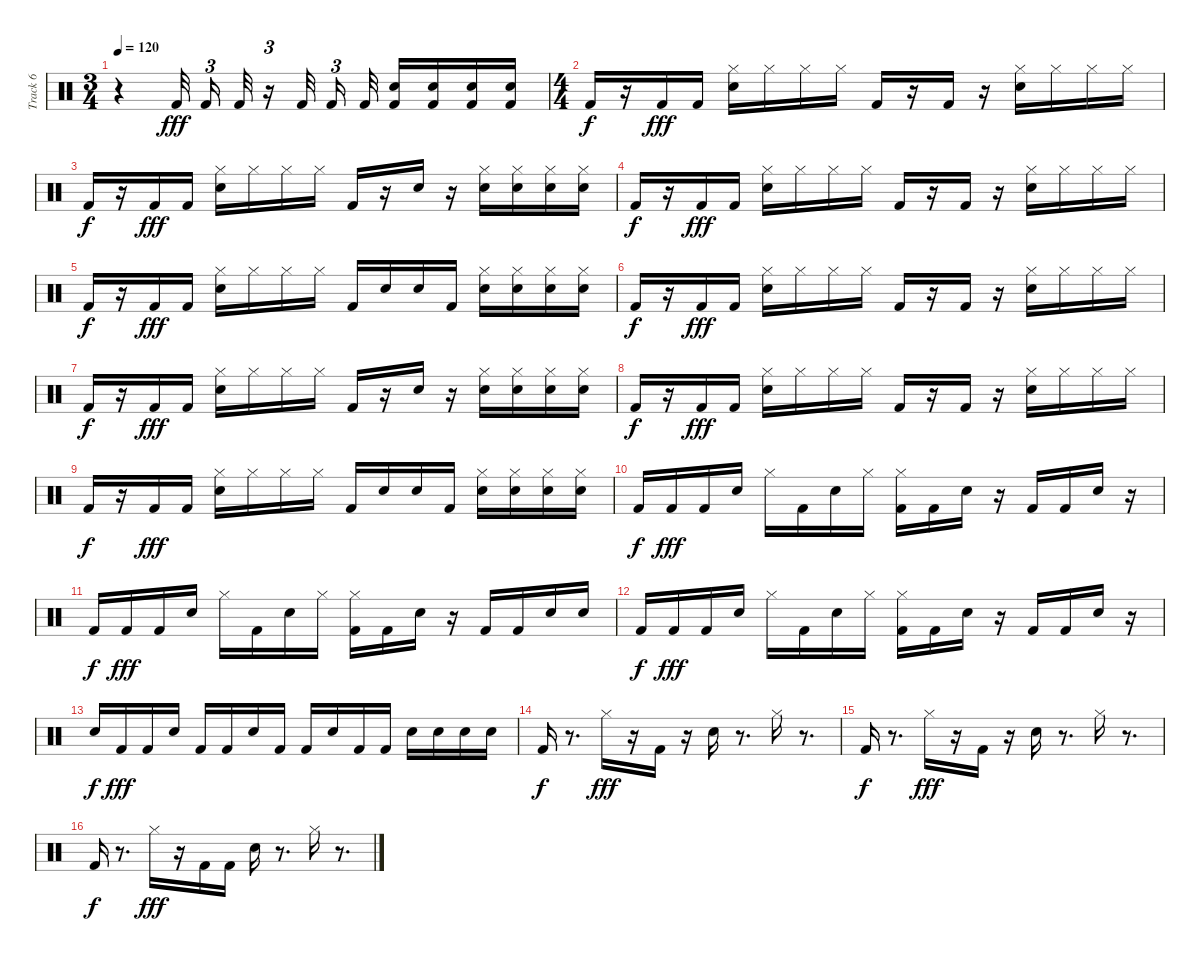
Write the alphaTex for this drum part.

\track ("Track 6" "Track 6") {instrument percussion}
\staff {score}
\articulation defaults
\ts (3 4)
\tempo 120
\clef neutral
\ks c
r.4{dy fff} "Kick (hit) 2".32{beam splitsecondary} "Kick (hit) 2".16{tu (3 2)} "Kick (hit) 2".32 r.16{tu (3 2)} "Kick (hit) 2".32{beam splitsecondary} "Kick (hit) 2".16{tu (3 2)} "Kick (hit) 2".32 ("Snare (hit) 2" "Kick (hit) 2").16 ("Snare (hit) 2" "Kick (hit) 2").16 ("Snare (hit) 2" "Kick (hit) 2").16 ("Snare (hit) 2" "Kick (hit) 2").16 |
\ts (4 4)
"Kick (hit) 2".16{dy f} r.16 "Kick (hit) 2".16{dy fff} "Kick (hit) 2".16 ("Snare (hit) 2" "Hi-Hat (closed)").16 "Hi-Hat (closed)".16 "Hi-Hat (closed)".16 "Hi-Hat (closed)".16 "Kick (hit) 2".16 r.16 "Kick (hit) 2".16 r.16 ("Snare (hit) 2" "Hi-Hat (closed)").16 "Hi-Hat (closed)".16 "Hi-Hat (closed)".16 "Hi-Hat (closed)".16 |
"Kick (hit) 2".16{dy f} r.16 "Kick (hit) 2".16{dy fff} "Kick (hit) 2".16 ("Snare (hit) 2" "Hi-Hat (closed)").16 "Hi-Hat (closed)".16 "Hi-Hat (closed)".16 "Hi-Hat (closed)".16 "Kick (hit) 2".16 r.16 "Snare (hit) 2".16 r.16 ("Snare (hit) 2" "Hi-Hat (closed)").16 ("Hi-Hat (closed)" "Snare (hit) 2").16 ("Hi-Hat (closed)" "Snare (hit) 2").16 ("Hi-Hat (closed)" "Snare (hit) 2").16 |
"Kick (hit) 2".16{dy f} r.16 "Kick (hit) 2".16{dy fff} "Kick (hit) 2".16 ("Snare (hit) 2" "Hi-Hat (closed)").16 "Hi-Hat (closed)".16 "Hi-Hat (closed)".16 "Hi-Hat (closed)".16 "Kick (hit) 2".16 r.16 "Kick (hit) 2".16 r.16 ("Snare (hit) 2" "Hi-Hat (closed)").16 "Hi-Hat (closed)".16 "Hi-Hat (closed)".16 "Hi-Hat (closed)".16 |
"Kick (hit) 2".16{dy f} r.16 "Kick (hit) 2".16{dy fff} "Kick (hit) 2".16 ("Snare (hit) 2" "Hi-Hat (closed)").16 "Hi-Hat (closed)".16 "Hi-Hat (closed)".16 "Hi-Hat (closed)".16 "Kick (hit) 2".16 "Snare (hit) 2".16 "Snare (hit) 2".16 "Kick (hit) 2".16 ("Snare (hit) 2" "Hi-Hat (closed)").16 ("Hi-Hat (closed)" "Snare (hit) 2").16 ("Hi-Hat (closed)" "Snare (hit) 2").16 ("Hi-Hat (closed)" "Snare (hit) 2").16 |
"Kick (hit) 2".16{dy f} r.16 "Kick (hit) 2".16{dy fff} "Kick (hit) 2".16 ("Snare (hit) 2" "Hi-Hat (closed)").16 "Hi-Hat (closed)".16 "Hi-Hat (closed)".16 "Hi-Hat (closed)".16 "Kick (hit) 2".16 r.16 "Kick (hit) 2".16 r.16 ("Snare (hit) 2" "Hi-Hat (closed)").16 "Hi-Hat (closed)".16 "Hi-Hat (closed)".16 "Hi-Hat (closed)".16 |
"Kick (hit) 2".16{dy f} r.16 "Kick (hit) 2".16{dy fff} "Kick (hit) 2".16 ("Snare (hit) 2" "Hi-Hat (closed)").16 "Hi-Hat (closed)".16 "Hi-Hat (closed)".16 "Hi-Hat (closed)".16 "Kick (hit) 2".16 r.16 "Snare (hit) 2".16 r.16 ("Snare (hit) 2" "Hi-Hat (closed)").16 ("Hi-Hat (closed)" "Snare (hit) 2").16 ("Hi-Hat (closed)" "Snare (hit) 2").16 ("Hi-Hat (closed)" "Snare (hit) 2").16 |
"Kick (hit) 2".16{dy f} r.16 "Kick (hit) 2".16{dy fff} "Kick (hit) 2".16 ("Snare (hit) 2" "Hi-Hat (closed)").16 "Hi-Hat (closed)".16 "Hi-Hat (closed)".16 "Hi-Hat (closed)".16 "Kick (hit) 2".16 r.16 "Kick (hit) 2".16 r.16 ("Snare (hit) 2" "Hi-Hat (closed)").16 "Hi-Hat (closed)".16 "Hi-Hat (closed)".16 "Hi-Hat (closed)".16 |
"Kick (hit) 2".16{dy f} r.16 "Kick (hit) 2".16{dy fff} "Kick (hit) 2".16 ("Snare (hit) 2" "Hi-Hat (closed)").16 "Hi-Hat (closed)".16 "Hi-Hat (closed)".16 "Hi-Hat (closed)".16 "Kick (hit) 2".16 "Snare (hit) 2".16 "Snare (hit) 2".16 "Kick (hit) 2".16 ("Snare (hit) 2" "Hi-Hat (closed)").16 ("Hi-Hat (closed)" "Snare (hit) 2").16 ("Hi-Hat (closed)" "Snare (hit) 2").16 ("Hi-Hat (closed)" "Snare (hit) 2").16 |
"Kick (hit) 2".16{dy f} "Kick (hit) 2".16{dy fff} "Kick (hit) 2".16 "Snare (hit) 2".16 "Hi-Hat (closed)".16 "Kick (hit) 2".16 "Snare (hit) 2".16 "Hi-Hat (closed)".16 ("Kick (hit) 2" "Hi-Hat (closed)").16 "Kick (hit) 2".16 "Snare (hit) 2".16 r.16 "Kick (hit) 2".16 "Kick (hit) 2".16 "Snare (hit) 2".16 r.16 |
"Kick (hit) 2".16{dy f} "Kick (hit) 2".16{dy fff} "Kick (hit) 2".16 "Snare (hit) 2".16 "Hi-Hat (closed)".16 "Kick (hit) 2".16 "Snare (hit) 2".16 "Hi-Hat (closed)".16 ("Kick (hit) 2" "Hi-Hat (closed)").16 "Kick (hit) 2".16 "Snare (hit) 2".16 r.16 "Kick (hit) 2".16 "Kick (hit) 2".16 "Snare (hit) 2".16 "Snare (hit) 2".16 |
"Kick (hit) 2".16{dy f} "Kick (hit) 2".16{dy fff} "Kick (hit) 2".16 "Snare (hit) 2".16 "Hi-Hat (closed)".16 "Kick (hit) 2".16 "Snare (hit) 2".16 "Hi-Hat (closed)".16 ("Kick (hit) 2" "Hi-Hat (closed)").16 "Kick (hit) 2".16 "Snare (hit) 2".16 r.16 "Kick (hit) 2".16 "Kick (hit) 2".16 "Snare (hit) 2".16 r.16 |
"Snare (hit) 2".16{dy f} "Kick (hit) 2".16{dy fff} "Kick (hit) 2".16 "Snare (hit) 2".16 "Kick (hit) 2".16 "Kick (hit) 2".16 "Snare (hit) 2".16 "Kick (hit) 2".16 "Kick (hit) 2".16 "Snare (hit) 2".16 "Kick (hit) 2".16 "Kick (hit) 2".16 "Snare (hit) 2".16 "Snare (hit) 2".16 "Snare (hit) 2".16 "Snare (hit) 2".16 |
"Kick (hit) 2".16{dy f} r.8{d} "Hi-Hat (closed)".16{dy fff} r.16 "Kick (hit) 2".16 r.16 "Snare (hit) 2".16 r.8{d} "Hi-Hat (closed)".16 r.8{d} |
"Kick (hit) 2".16{dy f} r.8{d} "Hi-Hat (closed)".16{dy fff} r.16 "Kick (hit) 2".16 r.16 "Snare (hit) 2".16 r.8{d} "Hi-Hat (closed)".16 r.8{d} |
"Kick (hit) 2".16{dy f} r.8{d} "Hi-Hat (closed)".16{dy fff} r.16 "Kick (hit) 2".16 "Kick (hit) 2".16 "Snare (hit) 2".16 r.8{d} "Hi-Hat (closed)".16 r.8{d}
